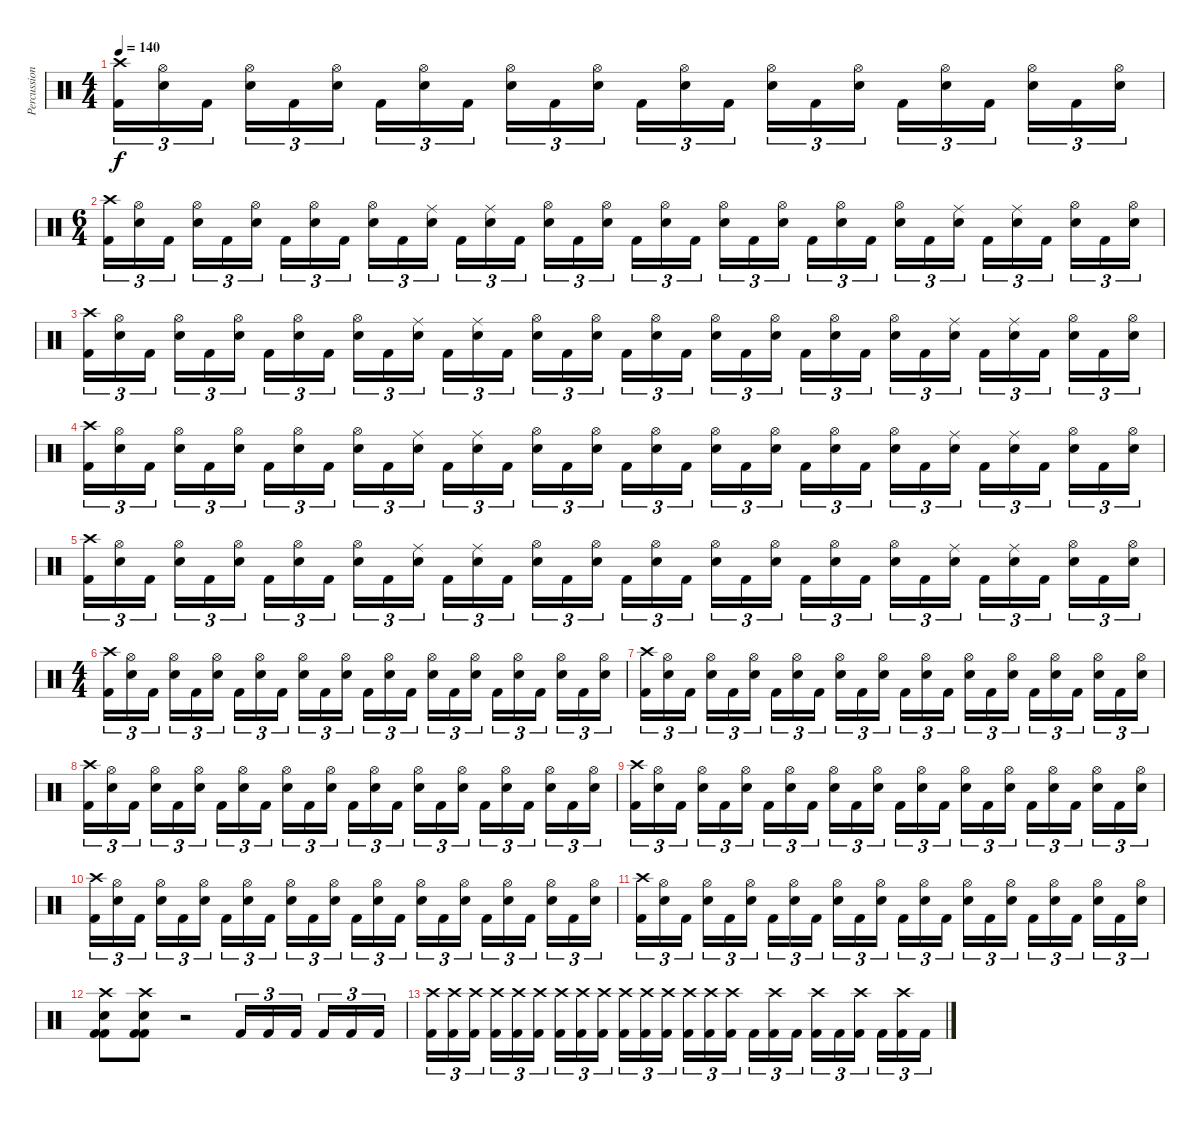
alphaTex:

\track ("Percussion" "Percussion") {instrument percussion}
\staff {score}
\articulation defaults
\ts (4 4)
\tempo 140
\clef neutral
\ks c
("Crash high (hit)" "Kick (hit) 2").16{tu (3 2) dy f} ("Hi-Hat (open)" "Snare (hit) 2").16{tu (3 2)} "Kick (hit) 2".16{tu (3 2)} ("Hi-Hat (open)" "Snare (hit) 2").16{tu (3 2)} "Kick (hit) 2".16{tu (3 2)} ("Hi-Hat (open)" "Snare (hit) 2").16{tu (3 2)} "Kick (hit) 2".16{tu (3 2)} ("Hi-Hat (open)" "Snare (hit) 2").16{tu (3 2)} "Kick (hit) 2".16{tu (3 2)} ("Hi-Hat (open)" "Snare (hit) 2").16{tu (3 2)} "Kick (hit) 2".16{tu (3 2)} ("Hi-Hat (open)" "Snare (hit) 2").16{tu (3 2)} "Kick (hit) 2".16{tu (3 2)} ("Hi-Hat (open)" "Snare (hit) 2").16{tu (3 2)} "Kick (hit) 2".16{tu (3 2)} ("Hi-Hat (open)" "Snare (hit) 2").16{tu (3 2)} "Kick (hit) 2".16{tu (3 2)} ("Hi-Hat (open)" "Snare (hit) 2").16{tu (3 2)} "Kick (hit) 2".16{tu (3 2)} ("Hi-Hat (open)" "Snare (hit) 2").16{tu (3 2)} "Kick (hit) 2".16{tu (3 2)} ("Hi-Hat (open)" "Snare (hit) 2").16{tu (3 2)} "Kick (hit) 2".16{tu (3 2)} ("Hi-Hat (open)" "Snare (hit) 2").16{tu (3 2)} |
\ts (6 4)
("Crash high (hit)" "Kick (hit) 2").16{tu (3 2)} ("Hi-Hat (open)" "Snare (hit) 2").16{tu (3 2)} "Kick (hit) 2".16{tu (3 2)} ("Hi-Hat (open)" "Snare (hit) 2").16{tu (3 2)} "Kick (hit) 2".16{tu (3 2)} ("Hi-Hat (open)" "Snare (hit) 2").16{tu (3 2)} "Kick (hit) 2".16{tu (3 2)} ("Hi-Hat (open)" "Snare (hit) 2").16{tu (3 2)} "Kick (hit) 2".16{tu (3 2)} ("Hi-Hat (open)" "Snare (hit) 2").16{tu (3 2)} "Kick (hit) 2".16{tu (3 2)} ("Ride (middle)" "Snare (hit) 2").16{tu (3 2)} "Kick (hit) 2".16{tu (3 2)} ("Ride (middle)" "Snare (hit) 2").16{tu (3 2)} "Kick (hit) 2".16{tu (3 2)} ("Hi-Hat (open)" "Snare (hit) 2").16{tu (3 2)} "Kick (hit) 2".16{tu (3 2)} ("Hi-Hat (open)" "Snare (hit) 2").16{tu (3 2)} "Kick (hit) 2".16{tu (3 2)} ("Hi-Hat (open)" "Snare (hit) 2").16{tu (3 2)} "Kick (hit) 2".16{tu (3 2)} ("Hi-Hat (open)" "Snare (hit) 2").16{tu (3 2)} "Kick (hit) 2".16{tu (3 2)} ("Hi-Hat (open)" "Snare (hit) 2").16{tu (3 2)} "Kick (hit) 2".16{tu (3 2)} ("Hi-Hat (open)" "Snare (hit) 2").16{tu (3 2)} "Kick (hit) 2".16{tu (3 2)} ("Hi-Hat (open)" "Snare (hit) 2").16{tu (3 2)} "Kick (hit) 2".16{tu (3 2)} ("Ride (middle)" "Snare (hit) 2").16{tu (3 2)} "Kick (hit) 2".16{tu (3 2)} ("Ride (middle)" "Snare (hit) 2").16{tu (3 2)} "Kick (hit) 2".16{tu (3 2)} ("Hi-Hat (open)" "Snare (hit) 2").16{tu (3 2)} "Kick (hit) 2".16{tu (3 2)} ("Hi-Hat (open)" "Snare (hit) 2").16{tu (3 2)} |
("Crash high (hit)" "Kick (hit) 2").16{tu (3 2)} ("Hi-Hat (open)" "Snare (hit) 2").16{tu (3 2)} "Kick (hit) 2".16{tu (3 2)} ("Hi-Hat (open)" "Snare (hit) 2").16{tu (3 2)} "Kick (hit) 2".16{tu (3 2)} ("Hi-Hat (open)" "Snare (hit) 2").16{tu (3 2)} "Kick (hit) 2".16{tu (3 2)} ("Hi-Hat (open)" "Snare (hit) 2").16{tu (3 2)} "Kick (hit) 2".16{tu (3 2)} ("Hi-Hat (open)" "Snare (hit) 2").16{tu (3 2)} "Kick (hit) 2".16{tu (3 2)} ("Ride (middle)" "Snare (hit) 2").16{tu (3 2)} "Kick (hit) 2".16{tu (3 2)} ("Ride (middle)" "Snare (hit) 2").16{tu (3 2)} "Kick (hit) 2".16{tu (3 2)} ("Hi-Hat (open)" "Snare (hit) 2").16{tu (3 2)} "Kick (hit) 2".16{tu (3 2)} ("Hi-Hat (open)" "Snare (hit) 2").16{tu (3 2)} "Kick (hit) 2".16{tu (3 2)} ("Hi-Hat (open)" "Snare (hit) 2").16{tu (3 2)} "Kick (hit) 2".16{tu (3 2)} ("Hi-Hat (open)" "Snare (hit) 2").16{tu (3 2)} "Kick (hit) 2".16{tu (3 2)} ("Hi-Hat (open)" "Snare (hit) 2").16{tu (3 2)} "Kick (hit) 2".16{tu (3 2)} ("Hi-Hat (open)" "Snare (hit) 2").16{tu (3 2)} "Kick (hit) 2".16{tu (3 2)} ("Hi-Hat (open)" "Snare (hit) 2").16{tu (3 2)} "Kick (hit) 2".16{tu (3 2)} ("Ride (middle)" "Snare (hit) 2").16{tu (3 2)} "Kick (hit) 2".16{tu (3 2)} ("Ride (middle)" "Snare (hit) 2").16{tu (3 2)} "Kick (hit) 2".16{tu (3 2)} ("Hi-Hat (open)" "Snare (hit) 2").16{tu (3 2)} "Kick (hit) 2".16{tu (3 2)} ("Hi-Hat (open)" "Snare (hit) 2").16{tu (3 2)} |
("Crash high (hit)" "Kick (hit) 2").16{tu (3 2)} ("Hi-Hat (open)" "Snare (hit) 2").16{tu (3 2)} "Kick (hit) 2".16{tu (3 2)} ("Hi-Hat (open)" "Snare (hit) 2").16{tu (3 2)} "Kick (hit) 2".16{tu (3 2)} ("Hi-Hat (open)" "Snare (hit) 2").16{tu (3 2)} "Kick (hit) 2".16{tu (3 2)} ("Hi-Hat (open)" "Snare (hit) 2").16{tu (3 2)} "Kick (hit) 2".16{tu (3 2)} ("Hi-Hat (open)" "Snare (hit) 2").16{tu (3 2)} "Kick (hit) 2".16{tu (3 2)} ("Ride (middle)" "Snare (hit) 2").16{tu (3 2)} "Kick (hit) 2".16{tu (3 2)} ("Ride (middle)" "Snare (hit) 2").16{tu (3 2)} "Kick (hit) 2".16{tu (3 2)} ("Hi-Hat (open)" "Snare (hit) 2").16{tu (3 2)} "Kick (hit) 2".16{tu (3 2)} ("Hi-Hat (open)" "Snare (hit) 2").16{tu (3 2)} "Kick (hit) 2".16{tu (3 2)} ("Hi-Hat (open)" "Snare (hit) 2").16{tu (3 2)} "Kick (hit) 2".16{tu (3 2)} ("Hi-Hat (open)" "Snare (hit) 2").16{tu (3 2)} "Kick (hit) 2".16{tu (3 2)} ("Hi-Hat (open)" "Snare (hit) 2").16{tu (3 2)} "Kick (hit) 2".16{tu (3 2)} ("Hi-Hat (open)" "Snare (hit) 2").16{tu (3 2)} "Kick (hit) 2".16{tu (3 2)} ("Hi-Hat (open)" "Snare (hit) 2").16{tu (3 2)} "Kick (hit) 2".16{tu (3 2)} ("Ride (middle)" "Snare (hit) 2").16{tu (3 2)} "Kick (hit) 2".16{tu (3 2)} ("Ride (middle)" "Snare (hit) 2").16{tu (3 2)} "Kick (hit) 2".16{tu (3 2)} ("Hi-Hat (open)" "Snare (hit) 2").16{tu (3 2)} "Kick (hit) 2".16{tu (3 2)} ("Hi-Hat (open)" "Snare (hit) 2").16{tu (3 2)} |
("Crash high (hit)" "Kick (hit) 2").16{tu (3 2)} ("Hi-Hat (open)" "Snare (hit) 2").16{tu (3 2)} "Kick (hit) 2".16{tu (3 2)} ("Hi-Hat (open)" "Snare (hit) 2").16{tu (3 2)} "Kick (hit) 2".16{tu (3 2)} ("Hi-Hat (open)" "Snare (hit) 2").16{tu (3 2)} "Kick (hit) 2".16{tu (3 2)} ("Hi-Hat (open)" "Snare (hit) 2").16{tu (3 2)} "Kick (hit) 2".16{tu (3 2)} ("Hi-Hat (open)" "Snare (hit) 2").16{tu (3 2)} "Kick (hit) 2".16{tu (3 2)} ("Ride (middle)" "Snare (hit) 2").16{tu (3 2)} "Kick (hit) 2".16{tu (3 2)} ("Ride (middle)" "Snare (hit) 2").16{tu (3 2)} "Kick (hit) 2".16{tu (3 2)} ("Hi-Hat (open)" "Snare (hit) 2").16{tu (3 2)} "Kick (hit) 2".16{tu (3 2)} ("Hi-Hat (open)" "Snare (hit) 2").16{tu (3 2)} "Kick (hit) 2".16{tu (3 2)} ("Hi-Hat (open)" "Snare (hit) 2").16{tu (3 2)} "Kick (hit) 2".16{tu (3 2)} ("Hi-Hat (open)" "Snare (hit) 2").16{tu (3 2)} "Kick (hit) 2".16{tu (3 2)} ("Hi-Hat (open)" "Snare (hit) 2").16{tu (3 2)} "Kick (hit) 2".16{tu (3 2)} ("Hi-Hat (open)" "Snare (hit) 2").16{tu (3 2)} "Kick (hit) 2".16{tu (3 2)} ("Hi-Hat (open)" "Snare (hit) 2").16{tu (3 2)} "Kick (hit) 2".16{tu (3 2)} ("Ride (middle)" "Snare (hit) 2").16{tu (3 2)} "Kick (hit) 2".16{tu (3 2)} ("Ride (middle)" "Snare (hit) 2").16{tu (3 2)} "Kick (hit) 2".16{tu (3 2)} ("Hi-Hat (open)" "Snare (hit) 2").16{tu (3 2)} "Kick (hit) 2".16{tu (3 2)} ("Hi-Hat (open)" "Snare (hit) 2").16{tu (3 2)} |
\ts (4 4)
("Crash high (hit)" "Kick (hit) 2").16{tu (3 2)} ("Hi-Hat (open)" "Snare (hit) 2").16{tu (3 2)} "Kick (hit) 2".16{tu (3 2)} ("Hi-Hat (open)" "Snare (hit) 2").16{tu (3 2)} "Kick (hit) 2".16{tu (3 2)} ("Hi-Hat (open)" "Snare (hit) 2").16{tu (3 2)} "Kick (hit) 2".16{tu (3 2)} ("Hi-Hat (open)" "Snare (hit) 2").16{tu (3 2)} "Kick (hit) 2".16{tu (3 2)} ("Hi-Hat (open)" "Snare (hit) 2").16{tu (3 2)} "Kick (hit) 2".16{tu (3 2)} ("Hi-Hat (open)" "Snare (hit) 2").16{tu (3 2)} "Kick (hit) 2".16{tu (3 2)} ("Hi-Hat (open)" "Snare (hit) 2").16{tu (3 2)} "Kick (hit) 2".16{tu (3 2)} ("Hi-Hat (open)" "Snare (hit) 2").16{tu (3 2)} "Kick (hit) 2".16{tu (3 2)} ("Hi-Hat (open)" "Snare (hit) 2").16{tu (3 2)} "Kick (hit) 2".16{tu (3 2)} ("Hi-Hat (open)" "Snare (hit) 2").16{tu (3 2)} "Kick (hit) 2".16{tu (3 2)} ("Hi-Hat (open)" "Snare (hit) 2").16{tu (3 2)} "Kick (hit) 2".16{tu (3 2)} ("Hi-Hat (open)" "Snare (hit) 2").16{tu (3 2)} |
("Crash high (hit)" "Kick (hit) 2").16{tu (3 2)} ("Hi-Hat (open)" "Snare (hit) 2").16{tu (3 2)} "Kick (hit) 2".16{tu (3 2)} ("Hi-Hat (open)" "Snare (hit) 2").16{tu (3 2)} "Kick (hit) 2".16{tu (3 2)} ("Hi-Hat (open)" "Snare (hit) 2").16{tu (3 2)} "Kick (hit) 2".16{tu (3 2)} ("Hi-Hat (open)" "Snare (hit) 2").16{tu (3 2)} "Kick (hit) 2".16{tu (3 2)} ("Hi-Hat (open)" "Snare (hit) 2").16{tu (3 2)} "Kick (hit) 2".16{tu (3 2)} ("Hi-Hat (open)" "Snare (hit) 2").16{tu (3 2)} "Kick (hit) 2".16{tu (3 2)} ("Hi-Hat (open)" "Snare (hit) 2").16{tu (3 2)} "Kick (hit) 2".16{tu (3 2)} ("Hi-Hat (open)" "Snare (hit) 2").16{tu (3 2)} "Kick (hit) 2".16{tu (3 2)} ("Hi-Hat (open)" "Snare (hit) 2").16{tu (3 2)} "Kick (hit) 2".16{tu (3 2)} ("Hi-Hat (open)" "Snare (hit) 2").16{tu (3 2)} "Kick (hit) 2".16{tu (3 2)} ("Hi-Hat (open)" "Snare (hit) 2").16{tu (3 2)} "Kick (hit) 2".16{tu (3 2)} ("Hi-Hat (open)" "Snare (hit) 2").16{tu (3 2)} |
("Crash high (hit)" "Kick (hit) 2").16{tu (3 2)} ("Hi-Hat (open)" "Snare (hit) 2").16{tu (3 2)} "Kick (hit) 2".16{tu (3 2)} ("Hi-Hat (open)" "Snare (hit) 2").16{tu (3 2)} "Kick (hit) 2".16{tu (3 2)} ("Hi-Hat (open)" "Snare (hit) 2").16{tu (3 2)} "Kick (hit) 2".16{tu (3 2)} ("Hi-Hat (open)" "Snare (hit) 2").16{tu (3 2)} "Kick (hit) 2".16{tu (3 2)} ("Hi-Hat (open)" "Snare (hit) 2").16{tu (3 2)} "Kick (hit) 2".16{tu (3 2)} ("Hi-Hat (open)" "Snare (hit) 2").16{tu (3 2)} "Kick (hit) 2".16{tu (3 2)} ("Hi-Hat (open)" "Snare (hit) 2").16{tu (3 2)} "Kick (hit) 2".16{tu (3 2)} ("Hi-Hat (open)" "Snare (hit) 2").16{tu (3 2)} "Kick (hit) 2".16{tu (3 2)} ("Hi-Hat (open)" "Snare (hit) 2").16{tu (3 2)} "Kick (hit) 2".16{tu (3 2)} ("Hi-Hat (open)" "Snare (hit) 2").16{tu (3 2)} "Kick (hit) 2".16{tu (3 2)} ("Hi-Hat (open)" "Snare (hit) 2").16{tu (3 2)} "Kick (hit) 2".16{tu (3 2)} ("Hi-Hat (open)" "Snare (hit) 2").16{tu (3 2)} |
("Crash high (hit)" "Kick (hit) 2").16{tu (3 2)} ("Hi-Hat (open)" "Snare (hit) 2").16{tu (3 2)} "Kick (hit) 2".16{tu (3 2)} ("Hi-Hat (open)" "Snare (hit) 2").16{tu (3 2)} "Kick (hit) 2".16{tu (3 2)} ("Hi-Hat (open)" "Snare (hit) 2").16{tu (3 2)} "Kick (hit) 2".16{tu (3 2)} ("Hi-Hat (open)" "Snare (hit) 2").16{tu (3 2)} "Kick (hit) 2".16{tu (3 2)} ("Hi-Hat (open)" "Snare (hit) 2").16{tu (3 2)} "Kick (hit) 2".16{tu (3 2)} ("Hi-Hat (open)" "Snare (hit) 2").16{tu (3 2)} "Kick (hit) 2".16{tu (3 2)} ("Hi-Hat (open)" "Snare (hit) 2").16{tu (3 2)} "Kick (hit) 2".16{tu (3 2)} ("Hi-Hat (open)" "Snare (hit) 2").16{tu (3 2)} "Kick (hit) 2".16{tu (3 2)} ("Hi-Hat (open)" "Snare (hit) 2").16{tu (3 2)} "Kick (hit) 2".16{tu (3 2)} ("Hi-Hat (open)" "Snare (hit) 2").16{tu (3 2)} "Kick (hit) 2".16{tu (3 2)} ("Hi-Hat (open)" "Snare (hit) 2").16{tu (3 2)} "Kick (hit) 2".16{tu (3 2)} ("Hi-Hat (open)" "Snare (hit) 2").16{tu (3 2)} |
("Crash high (hit)" "Kick (hit) 2").16{tu (3 2)} ("Hi-Hat (open)" "Snare (hit) 2").16{tu (3 2)} "Kick (hit) 2".16{tu (3 2)} ("Hi-Hat (open)" "Snare (hit) 2").16{tu (3 2)} "Kick (hit) 2".16{tu (3 2)} ("Hi-Hat (open)" "Snare (hit) 2").16{tu (3 2)} "Kick (hit) 2".16{tu (3 2)} ("Hi-Hat (open)" "Snare (hit) 2").16{tu (3 2)} "Kick (hit) 2".16{tu (3 2)} ("Hi-Hat (open)" "Snare (hit) 2").16{tu (3 2)} "Kick (hit) 2".16{tu (3 2)} ("Hi-Hat (open)" "Snare (hit) 2").16{tu (3 2)} "Kick (hit) 2".16{tu (3 2)} ("Hi-Hat (open)" "Snare (hit) 2").16{tu (3 2)} "Kick (hit) 2".16{tu (3 2)} ("Hi-Hat (open)" "Snare (hit) 2").16{tu (3 2)} "Kick (hit) 2".16{tu (3 2)} ("Hi-Hat (open)" "Snare (hit) 2").16{tu (3 2)} "Kick (hit) 2".16{tu (3 2)} ("Hi-Hat (open)" "Snare (hit) 2").16{tu (3 2)} "Kick (hit) 2".16{tu (3 2)} ("Hi-Hat (open)" "Snare (hit) 2").16{tu (3 2)} "Kick (hit) 2".16{tu (3 2)} ("Hi-Hat (open)" "Snare (hit) 2").16{tu (3 2)} |
("Crash high (hit)" "Kick (hit) 2").16{tu (3 2)} ("Hi-Hat (open)" "Snare (hit) 2").16{tu (3 2)} "Kick (hit) 2".16{tu (3 2)} ("Hi-Hat (open)" "Snare (hit) 2").16{tu (3 2)} "Kick (hit) 2".16{tu (3 2)} ("Hi-Hat (open)" "Snare (hit) 2").16{tu (3 2)} "Kick (hit) 2".16{tu (3 2)} ("Hi-Hat (open)" "Snare (hit) 2").16{tu (3 2)} "Kick (hit) 2".16{tu (3 2)} ("Hi-Hat (open)" "Snare (hit) 2").16{tu (3 2)} "Kick (hit) 2".16{tu (3 2)} ("Hi-Hat (open)" "Snare (hit) 2").16{tu (3 2)} "Kick (hit) 2".16{tu (3 2)} ("Hi-Hat (open)" "Snare (hit) 2").16{tu (3 2)} "Kick (hit) 2".16{tu (3 2)} ("Hi-Hat (open)" "Snare (hit) 2").16{tu (3 2)} "Kick (hit) 2".16{tu (3 2)} ("Hi-Hat (open)" "Snare (hit) 2").16{tu (3 2)} "Kick (hit) 2".16{tu (3 2)} ("Hi-Hat (open)" "Snare (hit) 2").16{tu (3 2)} "Kick (hit) 2".16{tu (3 2)} ("Hi-Hat (open)" "Snare (hit) 2").16{tu (3 2)} "Kick (hit) 2".16{tu (3 2)} ("Hi-Hat (open)" "Snare (hit) 2").16{tu (3 2)} |
("Crash high (hit)" "Snare (hit) 2" "Kick (hit) 2" "Kick (hit) 2").8 ("Crash high (hit)" "Snare (hit) 2" "Kick (hit) 2" "Kick (hit) 2").8 r.2 "Kick (hit) 2".16{tu (3 2)} "Kick (hit) 2".16{tu (3 2)} "Kick (hit) 2".16{tu (3 2)} "Kick (hit) 2".16{tu (3 2)} "Kick (hit) 2".16{tu (3 2)} "Kick (hit) 2".16{tu (3 2)} |
("Crash high (hit)" "Kick (hit) 2").16{tu (3 2)} ("Crash high (hit)" "Kick (hit) 2").16{tu (3 2)} ("Crash high (hit)" "Kick (hit) 2").16{tu (3 2)} ("Crash high (hit)" "Kick (hit) 2").16{tu (3 2)} ("Crash high (hit)" "Kick (hit) 2").16{tu (3 2)} ("Crash high (hit)" "Kick (hit) 2").16{tu (3 2)} ("Crash high (hit)" "Kick (hit) 2").16{tu (3 2)} ("Crash high (hit)" "Kick (hit) 2").16{tu (3 2)} ("Crash high (hit)" "Kick (hit) 2").16{tu (3 2)} ("Crash high (hit)" "Kick (hit) 2").16{tu (3 2)} ("Crash high (hit)" "Kick (hit) 2").16{tu (3 2)} ("Crash high (hit)" "Kick (hit) 2").16{tu (3 2)} ("Crash high (hit)" "Kick (hit) 2").16{tu (3 2)} ("Crash high (hit)" "Kick (hit) 2").16{tu (3 2)} ("Crash high (hit)" "Kick (hit) 2").16{tu (3 2)} "Kick (hit) 2".16{tu (3 2)} ("Crash high (hit)" "Kick (hit) 2").16{tu (3 2)} "Kick (hit) 2".16{tu (3 2)} ("Crash high (hit)" "Kick (hit) 2").16{tu (3 2)} "Kick (hit) 2".16{tu (3 2)} ("Crash high (hit)" "Kick (hit) 2").16{tu (3 2)} "Kick (hit) 2".16{tu (3 2)} ("Crash high (hit)" "Kick (hit) 2").16{tu (3 2)} "Kick (hit) 2".16{tu (3 2)}
